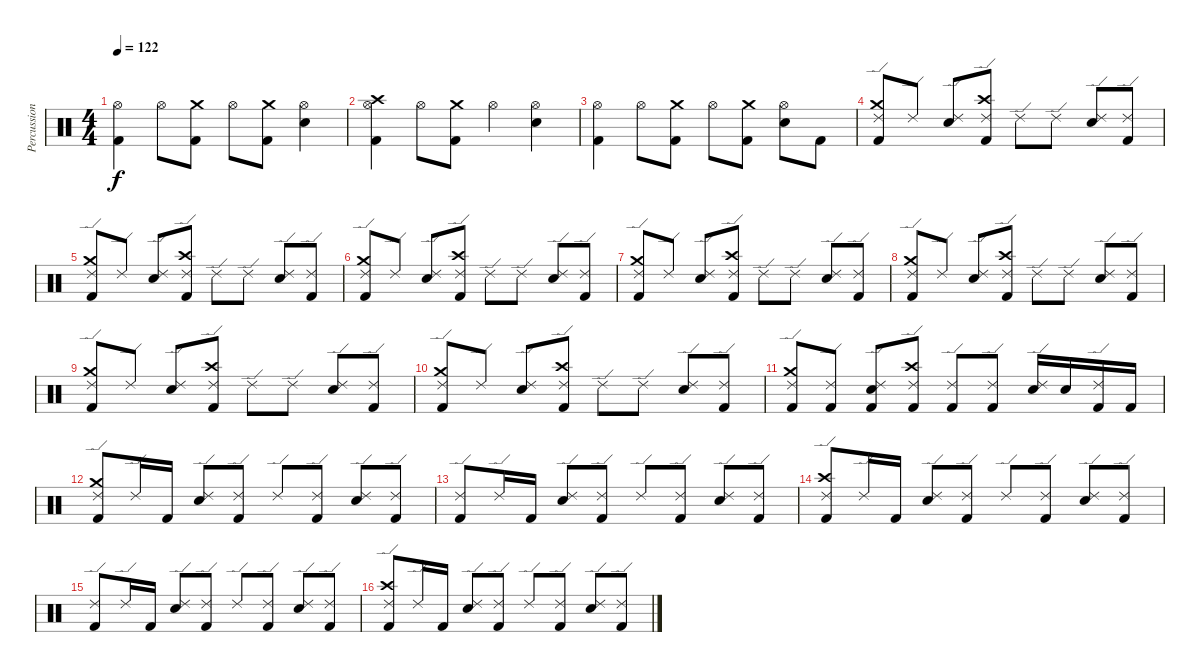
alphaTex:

\track ("Percussion" "Percussion") {instrument percussion}
\staff {score}
\articulation defaults
\ts (4 4)
\tempo 122
\clef neutral
\ks c
("Hi-Hat (open)" "Kick (hit) 2").4{dy f} "Hi-Hat (open)".8 ("Crash medium (hit)" "Kick (hit) 2").8 "Hi-Hat (open)".8 ("Crash medium (hit)" "Kick (hit) 2").8 ("Hi-Hat (open)" "Electric Snare (hit)").4 |
("Hi-Hat (open)" "Crash high (hit)" "Kick (hit) 2").4 "Hi-Hat (open)".8 ("Crash medium (hit)" "Kick (hit) 2").8 "Hi-Hat (open)".4 ("Hi-Hat (open)" "Electric Snare (hit)").4 |
("Hi-Hat (open)" "Kick (hit) 2").4 "Hi-Hat (open)".8 ("Crash medium (hit)" "Kick (hit) 2").8 "Hi-Hat (open)".8 ("Crash medium (hit)" "Kick (hit) 2").8 ("Hi-Hat (open)" "Electric Snare (hit)").8 "Kick (hit) 2".8 |
("Ride (edge) 2" "Crash medium (hit)" "Kick (hit) 2").8 "Ride (edge) 2".8 ("Ride (edge) 2" "Electric Snare (hit)").8 ("Ride (edge) 2" "Crash high (hit)" "Kick (hit) 2").8 "Ride (edge) 2".8 "Ride (edge) 2".8 ("Ride (edge) 2" "Electric Snare (hit)").8 ("Ride (edge) 2" "Kick (hit) 2").8 |
("Ride (edge) 2" "Crash medium (hit)" "Kick (hit) 2").8 "Ride (edge) 2".8 ("Ride (edge) 2" "Electric Snare (hit)").8 ("Ride (edge) 2" "Crash high (hit)" "Kick (hit) 2").8 "Ride (edge) 2".8 "Ride (edge) 2".8 ("Ride (edge) 2" "Electric Snare (hit)").8 ("Ride (edge) 2" "Kick (hit) 2").8 |
("Ride (edge) 2" "Crash medium (hit)" "Kick (hit) 2").8 "Ride (edge) 2".8 ("Ride (edge) 2" "Electric Snare (hit)").8 ("Ride (edge) 2" "Crash high (hit)" "Kick (hit) 2").8 "Ride (edge) 2".8 "Ride (edge) 2".8 ("Ride (edge) 2" "Electric Snare (hit)").8 ("Ride (edge) 2" "Kick (hit) 2").8 |
("Ride (edge) 2" "Crash medium (hit)" "Kick (hit) 2").8 "Ride (edge) 2".8 ("Ride (edge) 2" "Electric Snare (hit)").8 ("Ride (edge) 2" "Crash high (hit)" "Kick (hit) 2").8 "Ride (edge) 2".8 "Ride (edge) 2".8 ("Ride (edge) 2" "Electric Snare (hit)").8 ("Ride (edge) 2" "Kick (hit) 2").8 |
("Ride (edge) 2" "Crash medium (hit)" "Kick (hit) 2").8 "Ride (edge) 2".8 ("Ride (edge) 2" "Electric Snare (hit)").8 ("Ride (edge) 2" "Crash high (hit)" "Kick (hit) 2").8 "Ride (edge) 2".8 "Ride (edge) 2".8 ("Ride (edge) 2" "Electric Snare (hit)").8 ("Ride (edge) 2" "Kick (hit) 2").8 |
("Ride (edge) 2" "Crash medium (hit)" "Kick (hit) 2").8 "Ride (edge) 2".8 ("Ride (edge) 2" "Electric Snare (hit)").8 ("Ride (edge) 2" "Crash high (hit)" "Kick (hit) 2").8 "Ride (edge) 2".8 "Ride (edge) 2".8 ("Ride (edge) 2" "Electric Snare (hit)").8 ("Ride (edge) 2" "Kick (hit) 2").8 |
("Ride (edge) 2" "Crash medium (hit)" "Kick (hit) 2").8 "Ride (edge) 2".8 ("Ride (edge) 2" "Electric Snare (hit)").8 ("Ride (edge) 2" "Crash high (hit)" "Kick (hit) 2").8 "Ride (edge) 2".8 "Ride (edge) 2".8 ("Ride (edge) 2" "Electric Snare (hit)").8 ("Ride (edge) 2" "Kick (hit) 2").8 |
("Ride (edge) 2" "Crash medium (hit)" "Kick (hit) 2").8 ("Ride (edge) 2" "Kick (hit) 2").8 ("Ride (edge) 2" "Electric Snare (hit)" "Kick (hit) 2").8 ("Ride (edge) 2" "Crash high (hit)" "Kick (hit) 2").8 ("Ride (edge) 2" "Kick (hit) 2").8 ("Ride (edge) 2" "Kick (hit) 2").8 ("Ride (edge) 2" "Electric Snare (hit)").16 "Electric Snare (hit)".16 ("Ride (edge) 2" "Kick (hit) 2").16 "Kick (hit) 2".16 |
("Ride (edge) 2" "Crash medium (hit)" "Kick (hit) 2").8 "Ride (edge) 2".16 "Kick (hit) 2".16 ("Ride (edge) 2" "Electric Snare (hit)").8 ("Ride (edge) 2" "Kick (hit) 2").8 "Ride (edge) 2".8 ("Ride (edge) 2" "Kick (hit) 2").8 ("Ride (edge) 2" "Electric Snare (hit)").8 ("Ride (edge) 2" "Kick (hit) 2").8 |
("Ride (edge) 2" "Kick (hit) 2").8 "Ride (edge) 2".16 "Kick (hit) 2".16 ("Ride (edge) 2" "Electric Snare (hit)").8 ("Ride (edge) 2" "Kick (hit) 2").8 "Ride (edge) 2".8 ("Ride (edge) 2" "Kick (hit) 2").8 ("Ride (edge) 2" "Electric Snare (hit)").8 ("Ride (edge) 2" "Kick (hit) 2").8 |
("Ride (edge) 2" "Crash high (hit)" "Kick (hit) 2").8 "Ride (edge) 2".16 "Kick (hit) 2".16 ("Ride (edge) 2" "Electric Snare (hit)").8 ("Ride (edge) 2" "Kick (hit) 2").8 "Ride (edge) 2".8 ("Ride (edge) 2" "Kick (hit) 2").8 ("Ride (edge) 2" "Electric Snare (hit)").8 ("Ride (edge) 2" "Kick (hit) 2").8 |
("Ride (edge) 2" "Kick (hit) 2").8 "Ride (edge) 2".16 "Kick (hit) 2".16 ("Ride (edge) 2" "Electric Snare (hit)").8 ("Ride (edge) 2" "Kick (hit) 2").8 "Ride (edge) 2".8 ("Ride (edge) 2" "Kick (hit) 2").8 ("Ride (edge) 2" "Electric Snare (hit)").8 ("Ride (edge) 2" "Kick (hit) 2").8 |
("Ride (edge) 2" "Crash high (hit)" "Kick (hit) 2").8 "Ride (edge) 2".16 "Kick (hit) 2".16 ("Ride (edge) 2" "Electric Snare (hit)").8 ("Ride (edge) 2" "Kick (hit) 2").8 "Ride (edge) 2".8 ("Ride (edge) 2" "Kick (hit) 2").8 ("Ride (edge) 2" "Electric Snare (hit)").8 ("Ride (edge) 2" "Kick (hit) 2").8
